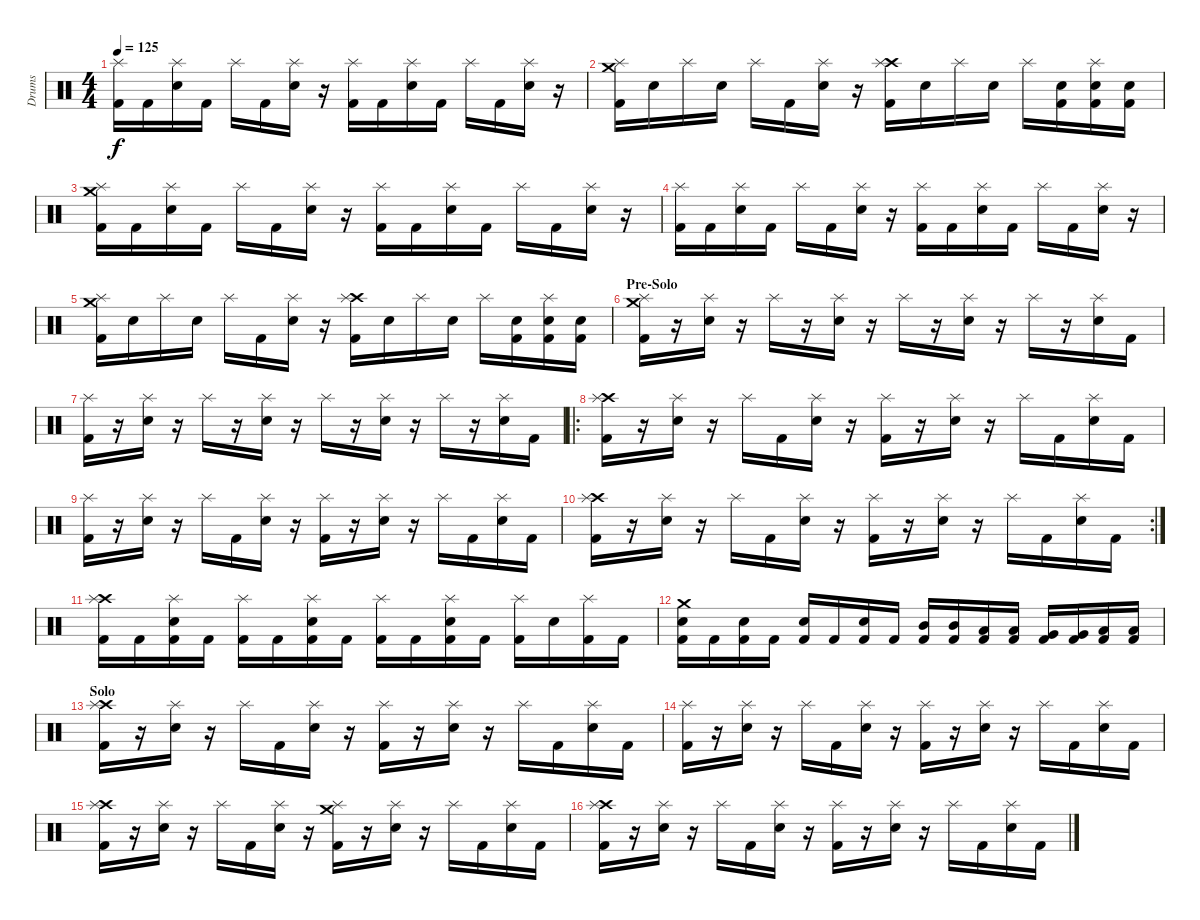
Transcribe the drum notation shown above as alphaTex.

\track ("Drums" "Drums") {instrument percussion}
\staff {score}
\articulation defaults
\ts (4 4)
\tempo 125
\clef neutral
\ks c
("Splash (hit)" "Kick (hit) 2").16{dy f} "Kick (hit) 2".16 ("Splash (hit)" "Electric Snare (hit)").16 "Kick (hit) 2".16 "Splash (hit)".16 "Kick (hit) 2".16 ("Splash (hit)" "Electric Snare (hit)").16 r.16 ("Splash (hit)" "Kick (hit) 2").16 "Kick (hit) 2".16 ("Splash (hit)" "Electric Snare (hit)").16 "Kick (hit) 2".16 "Splash (hit)".16 "Kick (hit) 2".16 ("Splash (hit)" "Electric Snare (hit)").16 r.16 |
("Crash medium (hit)" "Splash (hit)" "Kick (hit) 2").16 "Electric Snare (hit)".16 "Splash (hit)".16 "Electric Snare (hit)".16 "Splash (hit)".16 "Kick (hit) 2".16 ("Splash (hit)" "Electric Snare (hit)").16 r.16 ("Crash high (hit)" "Splash (hit)" "Kick (hit) 2").16 "Electric Snare (hit)".16 "Splash (hit)".16 "Electric Snare (hit)".16 "Splash (hit)".16 ("Electric Snare (hit)" "Kick (hit) 2").16 ("Splash (hit)" "Electric Snare (hit)" "Kick (hit) 2").16 ("Electric Snare (hit)" "Kick (hit) 2").16 |
("Crash medium (hit)" "Splash (hit)" "Kick (hit) 2").16 "Kick (hit) 2".16 ("Splash (hit)" "Electric Snare (hit)").16 "Kick (hit) 2".16 "Splash (hit)".16 "Kick (hit) 2".16 ("Splash (hit)" "Electric Snare (hit)").16 r.16 ("Splash (hit)" "Kick (hit) 2").16 "Kick (hit) 2".16 ("Splash (hit)" "Electric Snare (hit)").16 "Kick (hit) 2".16 "Splash (hit)".16 "Kick (hit) 2".16 ("Splash (hit)" "Electric Snare (hit)").16 r.16 |
("Splash (hit)" "Kick (hit) 2").16 "Kick (hit) 2".16 ("Splash (hit)" "Electric Snare (hit)").16 "Kick (hit) 2".16 "Splash (hit)".16 "Kick (hit) 2".16 ("Splash (hit)" "Electric Snare (hit)").16 r.16 ("Splash (hit)" "Kick (hit) 2").16 "Kick (hit) 2".16 ("Splash (hit)" "Electric Snare (hit)").16 "Kick (hit) 2".16 "Splash (hit)".16 "Kick (hit) 2".16 ("Splash (hit)" "Electric Snare (hit)").16 r.16 |
("Crash medium (hit)" "Splash (hit)" "Kick (hit) 2").16 "Electric Snare (hit)".16 "Splash (hit)".16 "Electric Snare (hit)".16 "Splash (hit)".16 "Kick (hit) 2".16 ("Splash (hit)" "Electric Snare (hit)").16 r.16 ("Crash high (hit)" "Splash (hit)" "Kick (hit) 2").16 "Electric Snare (hit)".16 "Splash (hit)".16 "Electric Snare (hit)".16 "Splash (hit)".16 ("Electric Snare (hit)" "Kick (hit) 2").16 ("Splash (hit)" "Electric Snare (hit)" "Kick (hit) 2").16 ("Electric Snare (hit)" "Kick (hit) 2").16 |
\section ("" "Pre-Solo")
("Crash medium (hit)" "Splash (hit)" "Kick (hit) 2").16 r.16 ("Splash (hit)" "Electric Snare (hit)").16 r.16 "Splash (hit)".16 r.16 ("Splash (hit)" "Electric Snare (hit)").16 r.16 "Splash (hit)".16 r.16 ("Splash (hit)" "Electric Snare (hit)").16 r.16 "Splash (hit)".16 r.16 ("Splash (hit)" "Electric Snare (hit)").16 "Kick (hit) 2".16 |
("Splash (hit)" "Kick (hit) 2").16 r.16 ("Splash (hit)" "Electric Snare (hit)").16 r.16 "Splash (hit)".16 r.16 ("Splash (hit)" "Electric Snare (hit)").16 r.16 "Splash (hit)".16 r.16 ("Splash (hit)" "Electric Snare (hit)").16 r.16 "Splash (hit)".16 r.16 ("Splash (hit)" "Electric Snare (hit)").16 "Kick (hit) 2".16 |
\ro
("Crash high (hit)" "Splash (hit)" "Kick (hit) 2").16 r.16 ("Splash (hit)" "Electric Snare (hit)").16 r.16 "Splash (hit)".16 "Kick (hit) 2".16 ("Splash (hit)" "Electric Snare (hit)").16 r.16 ("Splash (hit)" "Kick (hit) 2").16 r.16 ("Splash (hit)" "Electric Snare (hit)").16 r.16 "Splash (hit)".16 "Kick (hit) 2".16 ("Splash (hit)" "Electric Snare (hit)").16 "Kick (hit) 2".16 |
("Splash (hit)" "Kick (hit) 2").16 r.16 ("Splash (hit)" "Electric Snare (hit)").16 r.16 "Splash (hit)".16 "Kick (hit) 2".16 ("Splash (hit)" "Electric Snare (hit)").16 r.16 ("Splash (hit)" "Kick (hit) 2").16 r.16 ("Splash (hit)" "Electric Snare (hit)").16 r.16 "Splash (hit)".16 "Kick (hit) 2".16 ("Splash (hit)" "Electric Snare (hit)").16 "Kick (hit) 2".16 |
\rc 2
("Crash high (hit)" "Splash (hit)" "Kick (hit) 2").16 r.16 ("Splash (hit)" "Electric Snare (hit)").16 r.16 "Splash (hit)".16 "Kick (hit) 2".16 ("Splash (hit)" "Electric Snare (hit)").16 r.16 ("Splash (hit)" "Kick (hit) 2").16 r.16 ("Splash (hit)" "Electric Snare (hit)").16 r.16 "Splash (hit)".16 "Kick (hit) 2".16 ("Splash (hit)" "Electric Snare (hit)").16 "Kick (hit) 2".16 |
("Crash high (hit)" "Splash (hit)" "Kick (hit) 2").16 "Kick (hit) 2".16 ("Splash (hit)" "Electric Snare (hit)" "Kick (hit) 2").16 "Kick (hit) 2".16 ("Splash (hit)" "Kick (hit) 2").16 "Kick (hit) 2".16 ("Splash (hit)" "Electric Snare (hit)" "Kick (hit) 2").16 "Kick (hit) 2".16 ("Splash (hit)" "Kick (hit) 2").16 "Kick (hit) 2".16 ("Splash (hit)" "Electric Snare (hit)" "Kick (hit) 2").16 "Kick (hit) 2".16 ("Splash (hit)" "Kick (hit) 2").16 "Electric Snare (hit)".16 ("Splash (hit)" "Kick (hit) 2").16 "Kick (hit) 2".16 |
("Crash medium (hit)" "Electric Snare (hit)" "Kick (hit) 2").16 "Kick (hit) 2".16 ("Electric Snare (hit)" "Kick (hit) 2").16 "Kick (hit) 2".16 ("Electric Snare (hit)" "Kick (hit) 2").16 "Kick (hit) 2".16 ("Electric Snare (hit)" "Kick (hit) 2").16 "Kick (hit) 2".16 ("Mid Tom (hit)" "Kick (hit) 2").16 ("Mid Tom (hit)" "Kick (hit) 2").16 ("Low Tom (hit)" "Kick (hit) 2").16 ("Low Tom (hit)" "Kick (hit) 2").16 ("Very Low Tom (hit)" "Kick (hit) 2").16 ("Very Low Tom (hit)" "Kick (hit) 2").16 ("Low Floor Tom (hit)" "Kick (hit) 2").16 ("Low Floor Tom (hit)" "Kick (hit) 2").16 |
\section ("" "Solo")
("Crash high (hit)" "Splash (hit)" "Kick (hit) 2").16 r.16 ("Splash (hit)" "Electric Snare (hit)").16 r.16 "Splash (hit)".16 "Kick (hit) 2".16 ("Splash (hit)" "Electric Snare (hit)").16 r.16 ("Splash (hit)" "Kick (hit) 2").16 r.16 ("Splash (hit)" "Electric Snare (hit)").16 r.16 "Splash (hit)".16 "Kick (hit) 2".16 ("Splash (hit)" "Electric Snare (hit)").16 "Kick (hit) 2".16 |
("Splash (hit)" "Kick (hit) 2").16 r.16 ("Splash (hit)" "Electric Snare (hit)").16 r.16 "Splash (hit)".16 "Kick (hit) 2".16 ("Splash (hit)" "Electric Snare (hit)").16 r.16 ("Splash (hit)" "Kick (hit) 2").16 r.16 ("Splash (hit)" "Electric Snare (hit)").16 r.16 "Splash (hit)".16 "Kick (hit) 2".16 ("Splash (hit)" "Electric Snare (hit)").16 "Kick (hit) 2".16 |
("Crash high (hit)" "Splash (hit)" "Kick (hit) 2").16 r.16 ("Splash (hit)" "Electric Snare (hit)").16 r.16 "Splash (hit)".16 "Kick (hit) 2".16 ("Splash (hit)" "Electric Snare (hit)").16 r.16 ("Crash medium (hit)" "Splash (hit)" "Kick (hit) 2").16 r.16 ("Splash (hit)" "Electric Snare (hit)").16 r.16 "Splash (hit)".16 "Kick (hit) 2".16 ("Splash (hit)" "Electric Snare (hit)").16 "Kick (hit) 2".16 |
("Crash high (hit)" "Splash (hit)" "Kick (hit) 2").16 r.16 ("Splash (hit)" "Electric Snare (hit)").16 r.16 "Splash (hit)".16 "Kick (hit) 2".16 ("Splash (hit)" "Electric Snare (hit)").16 r.16 ("Splash (hit)" "Kick (hit) 2").16 r.16 ("Splash (hit)" "Electric Snare (hit)").16 r.16 "Splash (hit)".16 "Kick (hit) 2".16 ("Splash (hit)" "Electric Snare (hit)").16 "Kick (hit) 2".16
